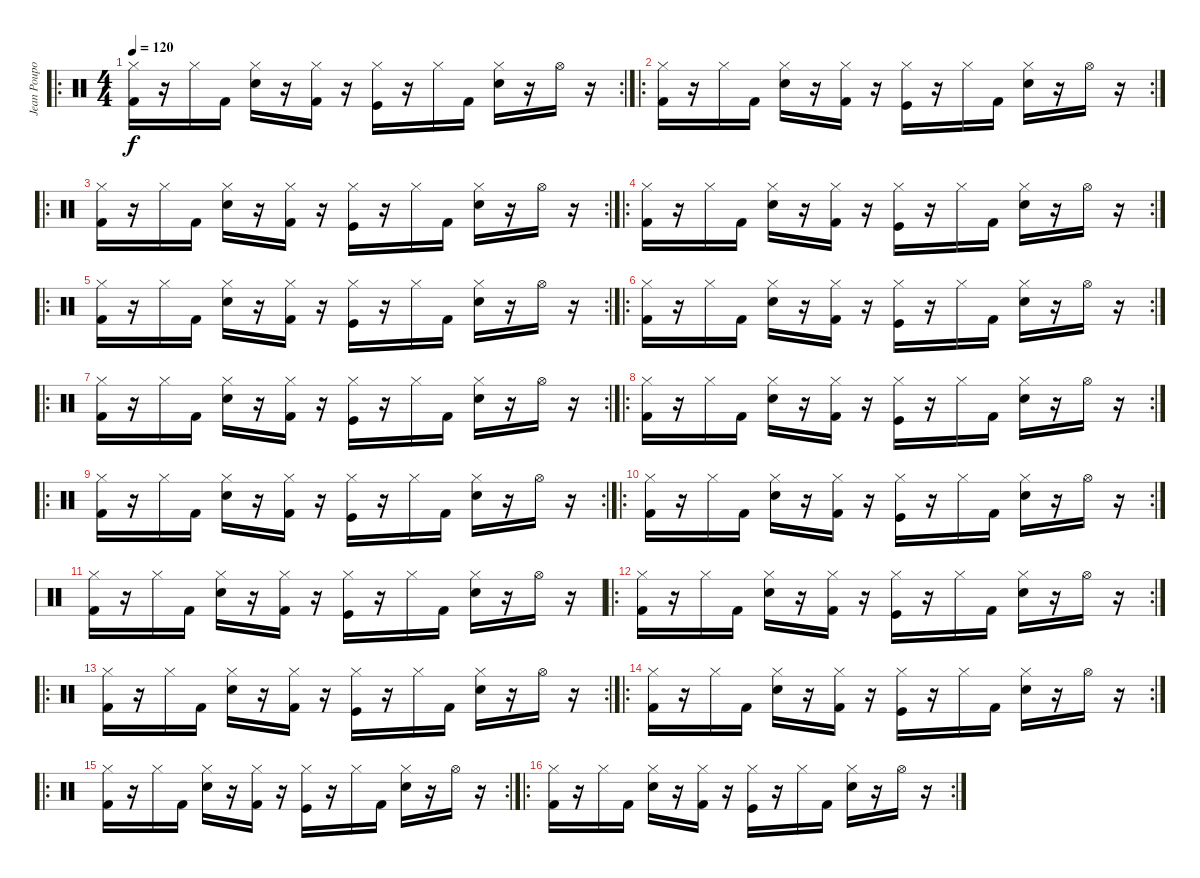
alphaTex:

\track ("Jean Poupoutich" "Jean Poupo") {instrument percussion}
\staff {score}
\articulation defaults
\ro
\rc 2
\ts (4 4)
\tempo 120
\clef neutral
\ks c
("Hi-Hat (closed)" "Kick (hit) 2").16{dy f} r.16 "Hi-Hat (closed)".16 "Kick (hit) 2".16 ("Hi-Hat (closed)" "Snare (hit) 2").16 r.16 ("Hi-Hat (closed)" "Kick (hit) 2").16 r.16 ("Hi-Hat (closed)" "Kick (hit)").16 r.16 "Hi-Hat (closed)".16 "Kick (hit) 2".16 ("Hi-Hat (closed)" "Snare (hit) 2").16 r.16 "Hi-Hat (open)".16 r.16 |
\ro
\rc 2
("Hi-Hat (closed)" "Kick (hit) 2").16 r.16 "Hi-Hat (closed)".16 "Kick (hit) 2".16 ("Hi-Hat (closed)" "Snare (hit) 2").16 r.16 ("Hi-Hat (closed)" "Kick (hit) 2").16 r.16 ("Hi-Hat (closed)" "Kick (hit)").16 r.16 "Hi-Hat (closed)".16 "Kick (hit) 2".16 ("Hi-Hat (closed)" "Snare (hit) 2").16 r.16 "Hi-Hat (open)".16 r.16 |
\ro
\rc 2
("Hi-Hat (closed)" "Kick (hit) 2").16 r.16 "Hi-Hat (closed)".16 "Kick (hit) 2".16 ("Hi-Hat (closed)" "Snare (hit) 2").16 r.16 ("Hi-Hat (closed)" "Kick (hit) 2").16 r.16 ("Hi-Hat (closed)" "Kick (hit)").16 r.16 "Hi-Hat (closed)".16 "Kick (hit) 2".16 ("Hi-Hat (closed)" "Snare (hit) 2").16 r.16 "Hi-Hat (open)".16 r.16 |
\ro
\rc 2
("Hi-Hat (closed)" "Kick (hit) 2").16 r.16 "Hi-Hat (closed)".16 "Kick (hit) 2".16 ("Hi-Hat (closed)" "Snare (hit) 2").16 r.16 ("Hi-Hat (closed)" "Kick (hit) 2").16 r.16 ("Hi-Hat (closed)" "Kick (hit)").16 r.16 "Hi-Hat (closed)".16 "Kick (hit) 2".16 ("Hi-Hat (closed)" "Snare (hit) 2").16 r.16 "Hi-Hat (open)".16 r.16 |
\ro
\rc 2
("Hi-Hat (closed)" "Kick (hit) 2").16 r.16 "Hi-Hat (closed)".16 "Kick (hit) 2".16 ("Hi-Hat (closed)" "Snare (hit) 2").16 r.16 ("Hi-Hat (closed)" "Kick (hit) 2").16 r.16 ("Hi-Hat (closed)" "Kick (hit)").16 r.16 "Hi-Hat (closed)".16 "Kick (hit) 2".16 ("Hi-Hat (closed)" "Snare (hit) 2").16 r.16 "Hi-Hat (open)".16 r.16 |
\ro
\rc 2
("Hi-Hat (closed)" "Kick (hit) 2").16 r.16 "Hi-Hat (closed)".16 "Kick (hit) 2".16 ("Hi-Hat (closed)" "Snare (hit) 2").16 r.16 ("Hi-Hat (closed)" "Kick (hit) 2").16 r.16 ("Hi-Hat (closed)" "Kick (hit)").16 r.16 "Hi-Hat (closed)".16 "Kick (hit) 2".16 ("Hi-Hat (closed)" "Snare (hit) 2").16 r.16 "Hi-Hat (open)".16 r.16 |
\ro
\rc 2
("Hi-Hat (closed)" "Kick (hit) 2").16 r.16 "Hi-Hat (closed)".16 "Kick (hit) 2".16 ("Hi-Hat (closed)" "Snare (hit) 2").16 r.16 ("Hi-Hat (closed)" "Kick (hit) 2").16 r.16 ("Hi-Hat (closed)" "Kick (hit)").16 r.16 "Hi-Hat (closed)".16 "Kick (hit) 2".16 ("Hi-Hat (closed)" "Snare (hit) 2").16 r.16 "Hi-Hat (open)".16 r.16 |
\ro
\rc 2
("Hi-Hat (closed)" "Kick (hit) 2").16 r.16 "Hi-Hat (closed)".16 "Kick (hit) 2".16 ("Hi-Hat (closed)" "Snare (hit) 2").16 r.16 ("Hi-Hat (closed)" "Kick (hit) 2").16 r.16 ("Hi-Hat (closed)" "Kick (hit)").16 r.16 "Hi-Hat (closed)".16 "Kick (hit) 2".16 ("Hi-Hat (closed)" "Snare (hit) 2").16 r.16 "Hi-Hat (open)".16 r.16 |
\ro
\rc 2
("Hi-Hat (closed)" "Kick (hit) 2").16 r.16 "Hi-Hat (closed)".16 "Kick (hit) 2".16 ("Hi-Hat (closed)" "Snare (hit) 2").16 r.16 ("Hi-Hat (closed)" "Kick (hit) 2").16 r.16 ("Hi-Hat (closed)" "Kick (hit)").16 r.16 "Hi-Hat (closed)".16 "Kick (hit) 2".16 ("Hi-Hat (closed)" "Snare (hit) 2").16 r.16 "Hi-Hat (open)".16 r.16 |
\ro
\rc 2
("Hi-Hat (closed)" "Kick (hit) 2").16 r.16 "Hi-Hat (closed)".16 "Kick (hit) 2".16 ("Hi-Hat (closed)" "Snare (hit) 2").16 r.16 ("Hi-Hat (closed)" "Kick (hit) 2").16 r.16 ("Hi-Hat (closed)" "Kick (hit)").16 r.16 "Hi-Hat (closed)".16 "Kick (hit) 2".16 ("Hi-Hat (closed)" "Snare (hit) 2").16 r.16 "Hi-Hat (open)".16 r.16 |
("Hi-Hat (closed)" "Kick (hit) 2").16 r.16 "Hi-Hat (closed)".16 "Kick (hit) 2".16 ("Hi-Hat (closed)" "Snare (hit) 2").16 r.16 ("Hi-Hat (closed)" "Kick (hit) 2").16 r.16 ("Hi-Hat (closed)" "Kick (hit)").16 r.16 "Hi-Hat (closed)".16 "Kick (hit) 2".16 ("Hi-Hat (closed)" "Snare (hit) 2").16 r.16 "Hi-Hat (open)".16 r.16 |
\ro
\rc 2
("Hi-Hat (closed)" "Kick (hit) 2").16 r.16 "Hi-Hat (closed)".16 "Kick (hit) 2".16 ("Hi-Hat (closed)" "Snare (hit) 2").16 r.16 ("Hi-Hat (closed)" "Kick (hit) 2").16 r.16 ("Hi-Hat (closed)" "Kick (hit)").16 r.16 "Hi-Hat (closed)".16 "Kick (hit) 2".16 ("Hi-Hat (closed)" "Snare (hit) 2").16 r.16 "Hi-Hat (open)".16 r.16 |
\ro
\rc 2
("Hi-Hat (closed)" "Kick (hit) 2").16 r.16 "Hi-Hat (closed)".16 "Kick (hit) 2".16 ("Hi-Hat (closed)" "Snare (hit) 2").16 r.16 ("Hi-Hat (closed)" "Kick (hit) 2").16 r.16 ("Hi-Hat (closed)" "Kick (hit)").16 r.16 "Hi-Hat (closed)".16 "Kick (hit) 2".16 ("Hi-Hat (closed)" "Snare (hit) 2").16 r.16 "Hi-Hat (open)".16 r.16 |
\ro
\rc 2
("Hi-Hat (closed)" "Kick (hit) 2").16 r.16 "Hi-Hat (closed)".16 "Kick (hit) 2".16 ("Hi-Hat (closed)" "Snare (hit) 2").16 r.16 ("Hi-Hat (closed)" "Kick (hit) 2").16 r.16 ("Hi-Hat (closed)" "Kick (hit)").16 r.16 "Hi-Hat (closed)".16 "Kick (hit) 2".16 ("Hi-Hat (closed)" "Snare (hit) 2").16 r.16 "Hi-Hat (open)".16 r.16 |
\ro
\rc 2
("Hi-Hat (closed)" "Kick (hit) 2").16 r.16 "Hi-Hat (closed)".16 "Kick (hit) 2".16 ("Hi-Hat (closed)" "Snare (hit) 2").16 r.16 ("Hi-Hat (closed)" "Kick (hit) 2").16 r.16 ("Hi-Hat (closed)" "Kick (hit)").16 r.16 "Hi-Hat (closed)".16 "Kick (hit) 2".16 ("Hi-Hat (closed)" "Snare (hit) 2").16 r.16 "Hi-Hat (open)".16 r.16 |
\ro
\rc 2
("Hi-Hat (closed)" "Kick (hit) 2").16 r.16 "Hi-Hat (closed)".16 "Kick (hit) 2".16 ("Hi-Hat (closed)" "Snare (hit) 2").16 r.16 ("Hi-Hat (closed)" "Kick (hit) 2").16 r.16 ("Hi-Hat (closed)" "Kick (hit)").16 r.16 "Hi-Hat (closed)".16 "Kick (hit) 2".16 ("Hi-Hat (closed)" "Snare (hit) 2").16 r.16 "Hi-Hat (open)".16 r.16
